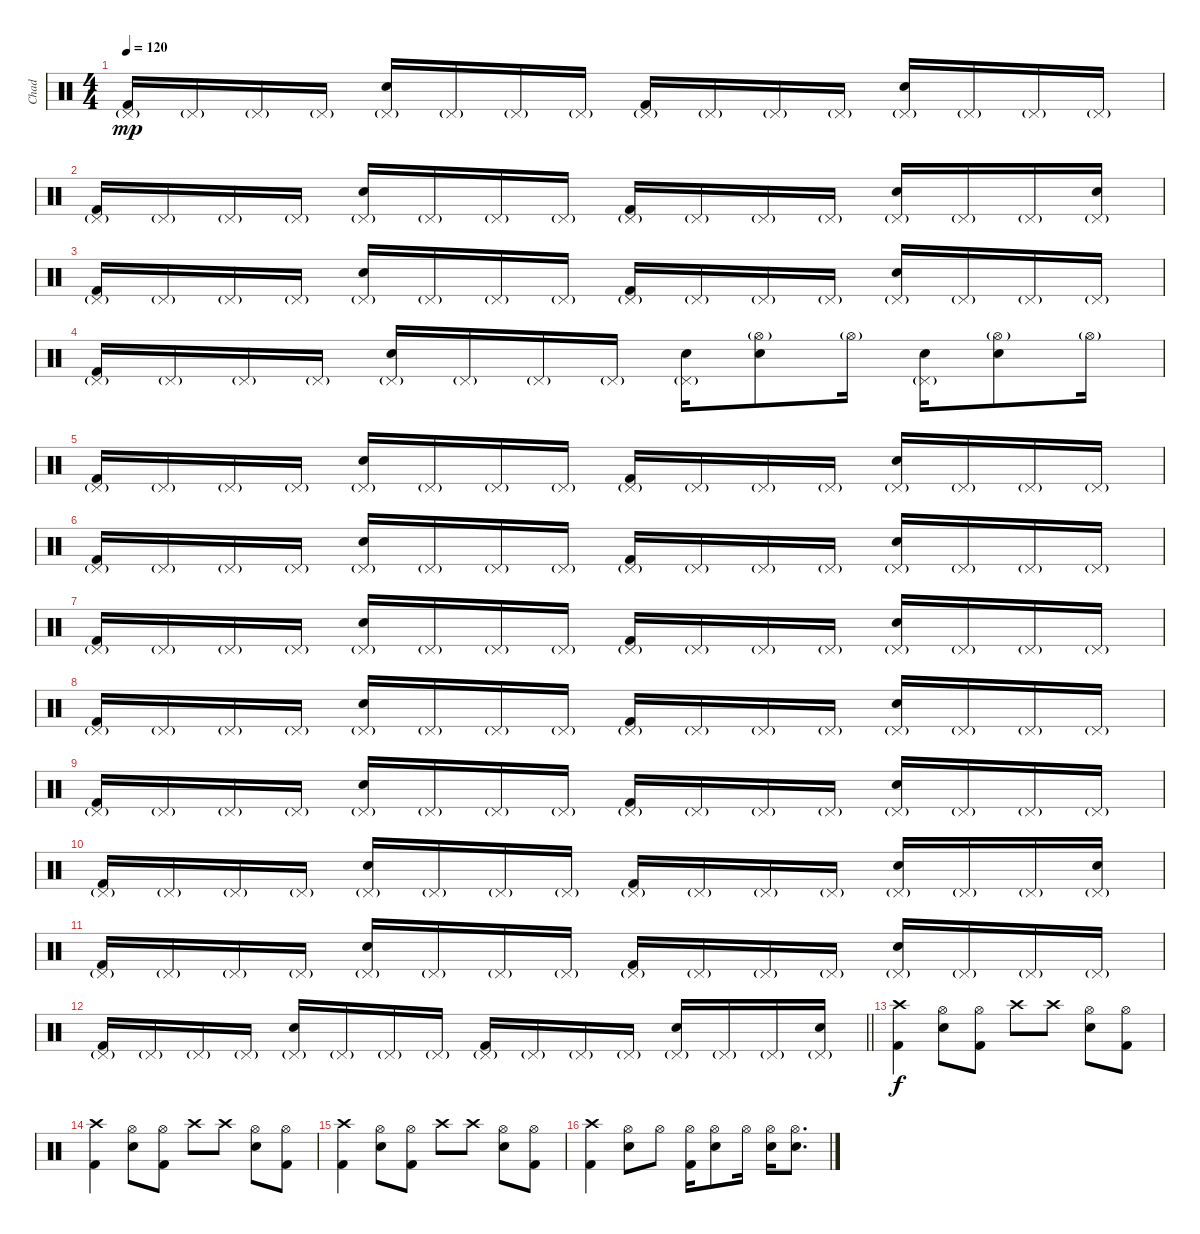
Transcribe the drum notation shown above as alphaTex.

\track ("Chad" "Chad") {instrument percussion}
\staff {score}
\articulation defaults
\ts (4 4)
\tempo 120
\clef neutral
\ks c
("Kick (hit) 2" "Pedal Hi-Hat (hit)"{g}).16{dy mp} "Pedal Hi-Hat (hit)"{g}.16 "Pedal Hi-Hat (hit)"{g}.16 "Pedal Hi-Hat (hit)"{g}.16 ("Electric Snare (hit)" "Pedal Hi-Hat (hit)"{g}).16 "Pedal Hi-Hat (hit)"{g}.16 "Pedal Hi-Hat (hit)"{g}.16 "Pedal Hi-Hat (hit)"{g}.16 ("Kick (hit) 2" "Pedal Hi-Hat (hit)"{g}).16 "Pedal Hi-Hat (hit)"{g}.16 "Pedal Hi-Hat (hit)"{g}.16 "Pedal Hi-Hat (hit)"{g}.16 ("Electric Snare (hit)" "Pedal Hi-Hat (hit)"{g}).16 "Pedal Hi-Hat (hit)"{g}.16 "Pedal Hi-Hat (hit)"{g}.16 "Pedal Hi-Hat (hit)"{g}.16 |
("Kick (hit) 2" "Pedal Hi-Hat (hit)"{g}).16 "Pedal Hi-Hat (hit)"{g}.16 "Pedal Hi-Hat (hit)"{g}.16 "Pedal Hi-Hat (hit)"{g}.16 ("Electric Snare (hit)" "Pedal Hi-Hat (hit)"{g}).16 "Pedal Hi-Hat (hit)"{g}.16 "Pedal Hi-Hat (hit)"{g}.16 "Pedal Hi-Hat (hit)"{g}.16 ("Kick (hit) 2" "Pedal Hi-Hat (hit)"{g}).16 "Pedal Hi-Hat (hit)"{g}.16 "Pedal Hi-Hat (hit)"{g}.16 "Pedal Hi-Hat (hit)"{g}.16 ("Electric Snare (hit)" "Pedal Hi-Hat (hit)"{g}).16 "Pedal Hi-Hat (hit)"{g}.16 "Pedal Hi-Hat (hit)"{g}.16 ("Electric Snare (hit)" "Pedal Hi-Hat (hit)"{g}).16 |
("Kick (hit) 2" "Pedal Hi-Hat (hit)"{g}).16 "Pedal Hi-Hat (hit)"{g}.16 "Pedal Hi-Hat (hit)"{g}.16 "Pedal Hi-Hat (hit)"{g}.16 ("Electric Snare (hit)" "Pedal Hi-Hat (hit)"{g}).16 "Pedal Hi-Hat (hit)"{g}.16 "Pedal Hi-Hat (hit)"{g}.16 "Pedal Hi-Hat (hit)"{g}.16 ("Kick (hit) 2" "Pedal Hi-Hat (hit)"{g}).16 "Pedal Hi-Hat (hit)"{g}.16 "Pedal Hi-Hat (hit)"{g}.16 "Pedal Hi-Hat (hit)"{g}.16 ("Electric Snare (hit)" "Pedal Hi-Hat (hit)"{g}).16 "Pedal Hi-Hat (hit)"{g}.16 "Pedal Hi-Hat (hit)"{g}.16 "Pedal Hi-Hat (hit)"{g}.16 |
("Kick (hit) 2" "Pedal Hi-Hat (hit)"{g}).16 "Pedal Hi-Hat (hit)"{g}.16 "Pedal Hi-Hat (hit)"{g}.16 "Pedal Hi-Hat (hit)"{g}.16 ("Electric Snare (hit)" "Pedal Hi-Hat (hit)"{g}).16 "Pedal Hi-Hat (hit)"{g}.16 "Pedal Hi-Hat (hit)"{g}.16 "Pedal Hi-Hat (hit)"{g}.16 ("Electric Snare (hit)" "Pedal Hi-Hat (hit)"{g}).16 ("Electric Snare (hit)" "Hi-Hat (open)"{g}).8 "Hi-Hat (open)"{g}.16 ("Electric Snare (hit)" "Pedal Hi-Hat (hit)"{g}).16 ("Electric Snare (hit)" "Hi-Hat (open)"{g}).8 "Hi-Hat (open)"{g}.16 |
("Kick (hit) 2" "Pedal Hi-Hat (hit)"{g}).16 "Pedal Hi-Hat (hit)"{g}.16 "Pedal Hi-Hat (hit)"{g}.16 "Pedal Hi-Hat (hit)"{g}.16 ("Electric Snare (hit)" "Pedal Hi-Hat (hit)"{g}).16 "Pedal Hi-Hat (hit)"{g}.16 "Pedal Hi-Hat (hit)"{g}.16 "Pedal Hi-Hat (hit)"{g}.16 ("Kick (hit) 2" "Pedal Hi-Hat (hit)"{g}).16 "Pedal Hi-Hat (hit)"{g}.16 "Pedal Hi-Hat (hit)"{g}.16 "Pedal Hi-Hat (hit)"{g}.16 ("Electric Snare (hit)" "Pedal Hi-Hat (hit)"{g}).16 "Pedal Hi-Hat (hit)"{g}.16 "Pedal Hi-Hat (hit)"{g}.16 "Pedal Hi-Hat (hit)"{g}.16 |
("Kick (hit) 2" "Pedal Hi-Hat (hit)"{g}).16 "Pedal Hi-Hat (hit)"{g}.16 "Pedal Hi-Hat (hit)"{g}.16 "Pedal Hi-Hat (hit)"{g}.16 ("Electric Snare (hit)" "Pedal Hi-Hat (hit)"{g}).16 "Pedal Hi-Hat (hit)"{g}.16 "Pedal Hi-Hat (hit)"{g}.16 "Pedal Hi-Hat (hit)"{g}.16 ("Kick (hit) 2" "Pedal Hi-Hat (hit)"{g}).16 "Pedal Hi-Hat (hit)"{g}.16 "Pedal Hi-Hat (hit)"{g}.16 "Pedal Hi-Hat (hit)"{g}.16 ("Electric Snare (hit)" "Pedal Hi-Hat (hit)"{g}).16 "Pedal Hi-Hat (hit)"{g}.16 "Pedal Hi-Hat (hit)"{g}.16 "Pedal Hi-Hat (hit)"{g}.16 |
("Kick (hit) 2" "Pedal Hi-Hat (hit)"{g}).16 "Pedal Hi-Hat (hit)"{g}.16 "Pedal Hi-Hat (hit)"{g}.16 "Pedal Hi-Hat (hit)"{g}.16 ("Electric Snare (hit)" "Pedal Hi-Hat (hit)"{g}).16 "Pedal Hi-Hat (hit)"{g}.16 "Pedal Hi-Hat (hit)"{g}.16 "Pedal Hi-Hat (hit)"{g}.16 ("Kick (hit) 2" "Pedal Hi-Hat (hit)"{g}).16 "Pedal Hi-Hat (hit)"{g}.16 "Pedal Hi-Hat (hit)"{g}.16 "Pedal Hi-Hat (hit)"{g}.16 ("Electric Snare (hit)" "Pedal Hi-Hat (hit)"{g}).16 "Pedal Hi-Hat (hit)"{g}.16 "Pedal Hi-Hat (hit)"{g}.16 "Pedal Hi-Hat (hit)"{g}.16 |
("Kick (hit) 2" "Pedal Hi-Hat (hit)"{g}).16 "Pedal Hi-Hat (hit)"{g}.16 "Pedal Hi-Hat (hit)"{g}.16 "Pedal Hi-Hat (hit)"{g}.16 ("Electric Snare (hit)" "Pedal Hi-Hat (hit)"{g}).16 "Pedal Hi-Hat (hit)"{g}.16 "Pedal Hi-Hat (hit)"{g}.16 "Pedal Hi-Hat (hit)"{g}.16 ("Kick (hit) 2" "Pedal Hi-Hat (hit)"{g}).16 "Pedal Hi-Hat (hit)"{g}.16 "Pedal Hi-Hat (hit)"{g}.16 "Pedal Hi-Hat (hit)"{g}.16 ("Electric Snare (hit)" "Pedal Hi-Hat (hit)"{g}).16 "Pedal Hi-Hat (hit)"{g}.16 "Pedal Hi-Hat (hit)"{g}.16 "Pedal Hi-Hat (hit)"{g}.16 |
("Kick (hit) 2" "Pedal Hi-Hat (hit)"{g}).16 "Pedal Hi-Hat (hit)"{g}.16 "Pedal Hi-Hat (hit)"{g}.16 "Pedal Hi-Hat (hit)"{g}.16 ("Electric Snare (hit)" "Pedal Hi-Hat (hit)"{g}).16 "Pedal Hi-Hat (hit)"{g}.16 "Pedal Hi-Hat (hit)"{g}.16 "Pedal Hi-Hat (hit)"{g}.16 ("Kick (hit) 2" "Pedal Hi-Hat (hit)"{g}).16 "Pedal Hi-Hat (hit)"{g}.16 "Pedal Hi-Hat (hit)"{g}.16 "Pedal Hi-Hat (hit)"{g}.16 ("Electric Snare (hit)" "Pedal Hi-Hat (hit)"{g}).16 "Pedal Hi-Hat (hit)"{g}.16 "Pedal Hi-Hat (hit)"{g}.16 "Pedal Hi-Hat (hit)"{g}.16 |
("Kick (hit) 2" "Pedal Hi-Hat (hit)"{g}).16 "Pedal Hi-Hat (hit)"{g}.16 "Pedal Hi-Hat (hit)"{g}.16 "Pedal Hi-Hat (hit)"{g}.16 ("Electric Snare (hit)" "Pedal Hi-Hat (hit)"{g}).16 "Pedal Hi-Hat (hit)"{g}.16 "Pedal Hi-Hat (hit)"{g}.16 "Pedal Hi-Hat (hit)"{g}.16 ("Kick (hit) 2" "Pedal Hi-Hat (hit)"{g}).16 "Pedal Hi-Hat (hit)"{g}.16 "Pedal Hi-Hat (hit)"{g}.16 "Pedal Hi-Hat (hit)"{g}.16 ("Electric Snare (hit)" "Pedal Hi-Hat (hit)"{g}).16 "Pedal Hi-Hat (hit)"{g}.16 "Pedal Hi-Hat (hit)"{g}.16 ("Electric Snare (hit)" "Pedal Hi-Hat (hit)"{g}).16 |
("Kick (hit) 2" "Pedal Hi-Hat (hit)"{g}).16 "Pedal Hi-Hat (hit)"{g}.16 "Pedal Hi-Hat (hit)"{g}.16 "Pedal Hi-Hat (hit)"{g}.16 ("Electric Snare (hit)" "Pedal Hi-Hat (hit)"{g}).16 "Pedal Hi-Hat (hit)"{g}.16 "Pedal Hi-Hat (hit)"{g}.16 "Pedal Hi-Hat (hit)"{g}.16 ("Kick (hit) 2" "Pedal Hi-Hat (hit)"{g}).16 "Pedal Hi-Hat (hit)"{g}.16 "Pedal Hi-Hat (hit)"{g}.16 "Pedal Hi-Hat (hit)"{g}.16 ("Electric Snare (hit)" "Pedal Hi-Hat (hit)"{g}).16 "Pedal Hi-Hat (hit)"{g}.16 "Pedal Hi-Hat (hit)"{g}.16 "Pedal Hi-Hat (hit)"{g}.16 |
\barLineRight lightlight
("Kick (hit) 2" "Pedal Hi-Hat (hit)"{g}).16 "Pedal Hi-Hat (hit)"{g}.16 "Pedal Hi-Hat (hit)"{g}.16 "Pedal Hi-Hat (hit)"{g}.16 ("Electric Snare (hit)" "Pedal Hi-Hat (hit)"{g}).16 "Pedal Hi-Hat (hit)"{g}.16 "Pedal Hi-Hat (hit)"{g}.16 "Pedal Hi-Hat (hit)"{g}.16 ("Kick (hit) 2" "Pedal Hi-Hat (hit)"{g}).16 "Pedal Hi-Hat (hit)"{g}.16 "Pedal Hi-Hat (hit)"{g}.16 "Pedal Hi-Hat (hit)"{g}.16 ("Electric Snare (hit)" "Pedal Hi-Hat (hit)"{g}).16 "Pedal Hi-Hat (hit)"{g}.16 "Pedal Hi-Hat (hit)"{g}.16 ("Electric Snare (hit)" "Pedal Hi-Hat (hit)"{g}).16 |
("Kick (hit) 2" "Crash high (hit)").4{dy f} ("Electric Snare (hit)" "Hi-Hat (open)").8 ("Kick (hit) 2" "Hi-Hat (open)").8 "Crash high (hit)".8 "Crash high (hit)".8 ("Electric Snare (hit)" "Hi-Hat (open)").8 ("Kick (hit) 2" "Hi-Hat (open)").8 |
("Kick (hit) 2" "Crash high (hit)").4 ("Electric Snare (hit)" "Hi-Hat (open)").8 ("Kick (hit) 2" "Hi-Hat (open)").8 "Crash high (hit)".8 "Crash high (hit)".8 ("Electric Snare (hit)" "Hi-Hat (open)").8 ("Kick (hit) 2" "Hi-Hat (open)").8 |
("Kick (hit) 2" "Crash high (hit)").4 ("Electric Snare (hit)" "Hi-Hat (open)").8 ("Kick (hit) 2" "Hi-Hat (open)").8 "Crash high (hit)".8 "Crash high (hit)".8 ("Electric Snare (hit)" "Hi-Hat (open)").8 ("Kick (hit) 2" "Hi-Hat (open)").8 |
("Kick (hit) 2" "Crash high (hit)").4 ("Electric Snare (hit)" "Hi-Hat (open)").8 "Hi-Hat (open)".8 ("Kick (hit) 2" "Hi-Hat (open)").16 ("Electric Snare (hit)" "Hi-Hat (open)").8 "Hi-Hat (open)".16 ("Electric Snare (hit)" "Hi-Hat (open)").16 ("Electric Snare (hit)" "Hi-Hat (open)").8{d}
